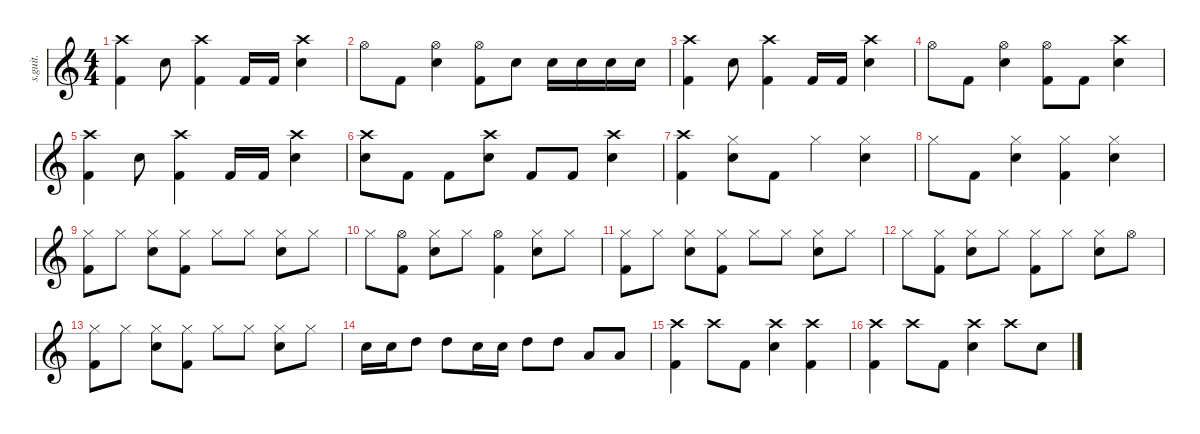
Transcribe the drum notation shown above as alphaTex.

\defaultSystemsLayout 4
\hideDynamics
\bracketExtendMode nobrackets
\track ("" "s.guit.") {instrument percussion}
\staff {score}
\articulation defaults
\ts (4 4)
\tempo (190 hide)
\clef g2
\ks c
("Crash high (hit)" "Kick (hit) 2").4{dy f} "Snare (hit) 2".8 ("Crash high (hit)" "Kick (hit) 2").4 "Kick (hit) 2".16 "Kick (hit) 2".16 ("Crash high (hit)" "Snare (hit) 2").4 |
"Hi-Hat (open)".8 "Kick (hit) 2".8 ("Hi-Hat (open)" "Snare (hit) 2").4 ("Hi-Hat (open)" "Kick (hit) 2").8 "Snare (hit) 2".8 "Snare (hit) 2".16 "Snare (hit) 2".16 "Snare (hit) 2".16 "Snare (hit) 2".16 |
("Crash high (hit)" "Kick (hit) 2").4 "Snare (hit) 2".8 ("Crash high (hit)" "Kick (hit) 2").4 "Kick (hit) 2".16 "Kick (hit) 2".16 ("Crash high (hit)" "Snare (hit) 2").4 |
"Hi-Hat (open)".8 "Kick (hit) 2".8 ("Hi-Hat (open)" "Snare (hit) 2").4 ("Hi-Hat (open)" "Kick (hit) 2").8 "Kick (hit) 2".8 ("Crash high (hit)" "Snare (hit) 2").4 |
("Crash high (hit)" "Kick (hit) 2").4 "Snare (hit) 2".8 ("Crash high (hit)" "Kick (hit) 2").4 "Kick (hit) 2".16 "Kick (hit) 2".16 ("Crash high (hit)" "Snare (hit) 2").4 |
("Crash high (hit)" "Snare (hit) 2").8 "Kick (hit) 2".8 "Kick (hit) 2".8 ("Crash high (hit)" "Snare (hit) 2").8 "Kick (hit) 2".8 "Kick (hit) 2".8 ("Crash high (hit)" "Snare (hit) 2").4 |
("Crash high (hit)" "Kick (hit) 2").4 ("Hi-Hat (closed)" "Snare (hit) 2").8 "Kick (hit) 2".8 "Hi-Hat (closed)".4 ("Hi-Hat (closed)" "Snare (hit) 2").4 |
"Hi-Hat (closed)".8 "Kick (hit) 2".8 ("Hi-Hat (closed)" "Snare (hit) 2").4 ("Hi-Hat (closed)" "Kick (hit) 2").4 ("Hi-Hat (closed)" "Snare (hit) 2").4 |
("Hi-Hat (closed)" "Kick (hit) 2").8 "Hi-Hat (closed)".8 ("Hi-Hat (closed)" "Snare (hit) 2").8 ("Hi-Hat (closed)" "Kick (hit) 2").8 "Hi-Hat (closed)".8 "Hi-Hat (closed)".8 ("Hi-Hat (closed)" "Snare (hit) 2").8 "Hi-Hat (closed)".8 |
"Hi-Hat (closed)".8 ("Hi-Hat (open)" "Kick (hit) 2").8 ("Hi-Hat (closed)" "Snare (hit) 2").8 "Hi-Hat (closed)".8 ("Hi-Hat (open)" "Kick (hit) 2").4 ("Hi-Hat (closed)" "Snare (hit) 2").8 "Hi-Hat (closed)".8 |
("Hi-Hat (closed)" "Kick (hit) 2").8 "Hi-Hat (closed)".8 ("Hi-Hat (closed)" "Snare (hit) 2").8 ("Hi-Hat (closed)" "Kick (hit) 2").8 "Hi-Hat (closed)".8 "Hi-Hat (closed)".8 ("Hi-Hat (closed)" "Snare (hit) 2").8 "Hi-Hat (closed)".8 |
"Hi-Hat (closed)".8 ("Hi-Hat (closed)" "Kick (hit) 2").8 ("Hi-Hat (closed)" "Snare (hit) 2").8 "Hi-Hat (closed)".8 ("Hi-Hat (closed)" "Kick (hit) 2").8 "Hi-Hat (closed)".8 ("Hi-Hat (closed)" "Snare (hit) 2").8 "Hi-Hat (open)".8 |
("Hi-Hat (closed)" "Kick (hit) 2").8 "Hi-Hat (closed)".8 ("Hi-Hat (closed)" "Snare (hit) 2").8 ("Hi-Hat (closed)" "Kick (hit) 2").8 "Hi-Hat (closed)".8 "Hi-Hat (closed)".8 ("Hi-Hat (closed)" "Snare (hit) 2").8 "Hi-Hat (closed)".8 |
"Snare (hit) 2".16 "Snare (hit) 2".16 "High Tom (hit)".8 "High Tom (hit)".8 "Snare (hit) 2".16 "Snare (hit) 2".16 "High Tom (hit)".8 "High Tom (hit)".8 "Low Tom (hit)".8 "Low Tom (hit)".8 |
("Crash high (hit)" "Kick (hit) 2").4 "Crash high (hit)".8 "Kick (hit) 2".8 ("Crash high (hit)" "Snare (hit) 2").4 ("Crash high (hit)" "Kick (hit) 2").4 |
("Crash high (hit)" "Kick (hit) 2").4 "Crash high (hit)".8 "Kick (hit) 2".8 ("Crash high (hit)" "Snare (hit) 2").4 "Crash high (hit)".8 "Snare (hit) 2".8
